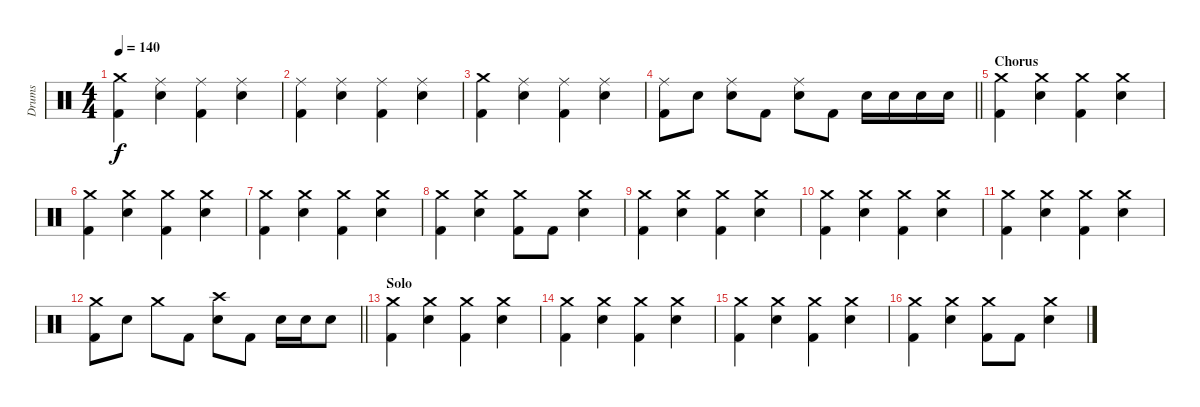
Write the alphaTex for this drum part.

\track ("Drums" "Drums") {instrument percussion}
\staff {score}
\articulation defaults
\ts (4 4)
\tempo 140
\clef neutral
\ks c
("Crash medium (hit)" "Kick (hit) 2").4{dy f} ("Ride (middle)" "Snare (hit) 2").4 ("Ride (middle)" "Kick (hit) 2").4 ("Ride (middle)" "Snare (hit) 2").4 |
("Ride (middle)" "Kick (hit) 2").4 ("Ride (middle)" "Snare (hit) 2").4 ("Ride (middle)" "Kick (hit) 2").4 ("Ride (middle)" "Snare (hit) 2").4 |
("Crash medium (hit)" "Kick (hit) 2").4 ("Ride (middle)" "Snare (hit) 2").4 ("Ride (middle)" "Kick (hit) 2").4 ("Ride (middle)" "Snare (hit) 2").4 |
\barLineRight lightlight
("Ride (middle)" "Kick (hit) 2").8 "Snare (hit) 2".8 ("Ride (middle)" "Snare (hit) 2").8 "Kick (hit) 2".8 ("Ride (middle)" "Snare (hit) 2").8 "Kick (hit) 2".8 "Snare (hit) 2".16 "Snare (hit) 2".16 "Snare (hit) 2".16 "Snare (hit) 2".16 |
\section ("" "Chorus")
("Crash medium (hit)" "Kick (hit) 2").4 ("Crash medium (hit)" "Snare (hit) 2").4 ("Crash medium (hit)" "Kick (hit) 2").4 ("Crash medium (hit)" "Snare (hit) 2").4 |
("Crash medium (hit)" "Kick (hit) 2").4 ("Crash medium (hit)" "Snare (hit) 2").4 ("Crash medium (hit)" "Kick (hit) 2").4 ("Crash medium (hit)" "Snare (hit) 2").4 |
("Crash medium (hit)" "Kick (hit) 2").4 ("Crash medium (hit)" "Snare (hit) 2").4 ("Crash medium (hit)" "Kick (hit) 2").4 ("Crash medium (hit)" "Snare (hit) 2").4 |
("Crash medium (hit)" "Kick (hit) 2").4 ("Crash medium (hit)" "Snare (hit) 2").4 ("Crash medium (hit)" "Kick (hit) 2").8 "Kick (hit) 2".8 ("Crash medium (hit)" "Snare (hit) 2").4 |
("Crash medium (hit)" "Kick (hit) 2").4 ("Crash medium (hit)" "Snare (hit) 2").4 ("Crash medium (hit)" "Kick (hit) 2").4 ("Crash medium (hit)" "Snare (hit) 2").4 |
("Crash medium (hit)" "Kick (hit) 2").4 ("Crash medium (hit)" "Snare (hit) 2").4 ("Crash medium (hit)" "Kick (hit) 2").4 ("Crash medium (hit)" "Snare (hit) 2").4 |
("Crash medium (hit)" "Kick (hit) 2").4 ("Crash medium (hit)" "Snare (hit) 2").4 ("Crash medium (hit)" "Kick (hit) 2").4 ("Crash medium (hit)" "Snare (hit) 2").4 |
\barLineRight lightlight
("Crash medium (hit)" "Kick (hit) 2").8 "Snare (hit) 2".8 "Crash medium (hit)".8 "Kick (hit) 2".8 ("Crash high (hit)" "Snare (hit) 2").8 "Kick (hit) 2".8 "Snare (hit) 2".16 "Snare (hit) 2".16 "Snare (hit) 2".8 |
\section ("" "Solo")
("Crash medium (hit)" "Kick (hit) 2").4 ("Crash medium (hit)" "Snare (hit) 2").4 ("Crash medium (hit)" "Kick (hit) 2").4 ("Crash medium (hit)" "Snare (hit) 2").4 |
("Crash medium (hit)" "Kick (hit) 2").4 ("Crash medium (hit)" "Snare (hit) 2").4 ("Crash medium (hit)" "Kick (hit) 2").4 ("Crash medium (hit)" "Snare (hit) 2").4 |
("Crash medium (hit)" "Kick (hit) 2").4 ("Crash medium (hit)" "Snare (hit) 2").4 ("Crash medium (hit)" "Kick (hit) 2").4 ("Crash medium (hit)" "Snare (hit) 2").4 |
("Crash medium (hit)" "Kick (hit) 2").4 ("Crash medium (hit)" "Snare (hit) 2").4 ("Crash medium (hit)" "Kick (hit) 2").8 "Kick (hit) 2".8 ("Crash medium (hit)" "Snare (hit) 2").4
